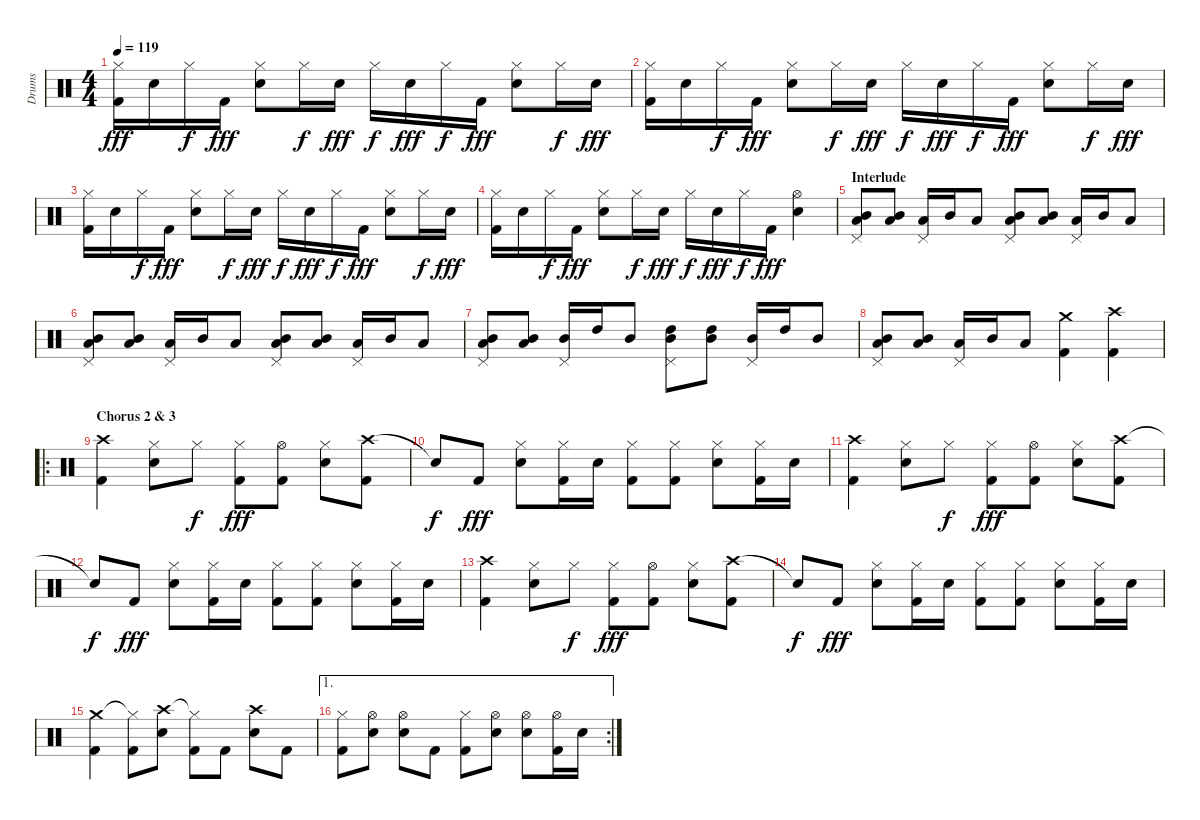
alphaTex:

\track ("Drums" "Drums") {instrument percussion}
\staff {score}
\articulation defaults
\ts (4 4)
\tempo 119
\clef neutral
\ks c
("Hi-Hat (closed)" "Kick (hit) 2").16{dy fff} "Electric Snare (hit)".16 "Hi-Hat (closed)".16{dy f} "Kick (hit) 2".16{dy fff} ("Hi-Hat (closed)" "Electric Snare (hit)").8 "Hi-Hat (closed)".16{dy f} "Electric Snare (hit)".16{dy fff} "Hi-Hat (closed)".16{dy f} "Electric Snare (hit)".16{dy fff} "Hi-Hat (closed)".16{dy f} "Kick (hit) 2".16{dy fff} ("Hi-Hat (closed)" "Electric Snare (hit)").8 "Hi-Hat (closed)".16{dy f} "Electric Snare (hit)".16{dy fff} |
("Hi-Hat (closed)" "Kick (hit) 2").16 "Electric Snare (hit)".16 "Hi-Hat (closed)".16{dy f} "Kick (hit) 2".16{dy fff} ("Hi-Hat (closed)" "Electric Snare (hit)").8 "Hi-Hat (closed)".16{dy f} "Electric Snare (hit)".16{dy fff} "Hi-Hat (closed)".16{dy f} "Electric Snare (hit)".16{dy fff} "Hi-Hat (closed)".16{dy f} "Kick (hit) 2".16{dy fff} ("Hi-Hat (closed)" "Electric Snare (hit)").8 "Hi-Hat (closed)".16{dy f} "Electric Snare (hit)".16{dy fff} |
("Hi-Hat (closed)" "Kick (hit) 2").16 "Electric Snare (hit)".16 "Hi-Hat (closed)".16{dy f} "Kick (hit) 2".16{dy fff} ("Hi-Hat (closed)" "Electric Snare (hit)").8 "Hi-Hat (closed)".16{dy f} "Electric Snare (hit)".16{dy fff} "Hi-Hat (closed)".16{dy f} "Electric Snare (hit)".16{dy fff} "Hi-Hat (closed)".16{dy f} "Kick (hit) 2".16{dy fff} ("Hi-Hat (closed)" "Electric Snare (hit)").8 "Hi-Hat (closed)".16{dy f} "Electric Snare (hit)".16{dy fff} |
("Hi-Hat (closed)" "Kick (hit) 2").16 "Electric Snare (hit)".16 "Hi-Hat (closed)".16{dy f} "Kick (hit) 2".16{dy fff} ("Hi-Hat (closed)" "Electric Snare (hit)").8 "Hi-Hat (closed)".16{dy f} "Electric Snare (hit)".16{dy fff} "Hi-Hat (closed)".16{dy f} "Electric Snare (hit)".16{dy fff} "Hi-Hat (closed)".16{dy f} "Kick (hit) 2".16{dy fff} ("Hi-Hat (open)" "Electric Snare (hit)").4 |
\section ("" "Interlude")
("Mid Tom (hit)" "Low Tom (hit)" "Pedal Hi-Hat (hit)").8 ("Mid Tom (hit)" "Low Tom (hit)").8 ("Low Tom (hit)" "Pedal Hi-Hat (hit)").16 "Mid Tom (hit)".16 "Low Tom (hit)".8 ("Mid Tom (hit)" "Low Tom (hit)" "Pedal Hi-Hat (hit)").8 ("Mid Tom (hit)" "Low Tom (hit)").8 ("Low Tom (hit)" "Pedal Hi-Hat (hit)").16 "Mid Tom (hit)".16 "Low Tom (hit)".8 |
("Mid Tom (hit)" "Low Tom (hit)" "Pedal Hi-Hat (hit)").8 ("Mid Tom (hit)" "Low Tom (hit)").8 ("Low Tom (hit)" "Pedal Hi-Hat (hit)").16 "Mid Tom (hit)".16 "Low Tom (hit)".8 ("Mid Tom (hit)" "Low Tom (hit)" "Pedal Hi-Hat (hit)").8 ("Mid Tom (hit)" "Low Tom (hit)").8 ("Low Tom (hit)" "Pedal Hi-Hat (hit)").16 "Mid Tom (hit)".16 "Low Tom (hit)".8 |
("Mid Tom (hit)" "Low Tom (hit)" "Pedal Hi-Hat (hit)").8 ("Mid Tom (hit)" "Low Tom (hit)").8 ("Mid Tom (hit)" "Pedal Hi-Hat (hit)").16 "High Tom (hit)".16 "Mid Tom (hit)".8 ("High Tom (hit)" "Mid Tom (hit)" "Pedal Hi-Hat (hit)").8 ("High Tom (hit)" "Mid Tom (hit)").8 ("Mid Tom (hit)" "Pedal Hi-Hat (hit)").16 "High Tom (hit)".16 "Mid Tom (hit)".8 |
("Mid Tom (hit)" "Low Tom (hit)" "Pedal Hi-Hat (hit)").8 ("Mid Tom (hit)" "Low Tom (hit)").8 ("Low Tom (hit)" "Pedal Hi-Hat (hit)").16 "Mid Tom (hit)".16 "Low Tom (hit)".8 ("Crash medium (hit)" "Kick (hit) 2").4 ("Crash high (hit)" "Kick (hit) 2").4 |
\ro
\section ("" "Chorus 2 & 3")
("Crash high (hit)" "Kick (hit) 2").4 ("Hi-Hat (closed)" "Electric Snare (hit)").8 "Hi-Hat (closed)".8{dy f} ("Hi-Hat (closed)" "Kick (hit) 2").8{dy fff} ("Hi-Hat (open)" "Kick (hit) 2").8 ("Hi-Hat (closed)" "Electric Snare (hit)").8 ("Crash high (hit)" "Kick (hit) 2").8 |
"Snare (hit)"{t}.8{dy f} "Kick (hit) 2".8{dy fff} ("Hi-Hat (closed)" "Electric Snare (hit)").8 ("Hi-Hat (closed)" "Kick (hit) 2").16 "Electric Snare (hit)".16 ("Hi-Hat (closed)" "Kick (hit) 2").8 ("Hi-Hat (closed)" "Kick (hit) 2").8 ("Hi-Hat (closed)" "Electric Snare (hit)").8 ("Hi-Hat (closed)" "Kick (hit) 2").16 "Electric Snare (hit)".16 |
("Crash high (hit)" "Kick (hit) 2").4 ("Hi-Hat (closed)" "Electric Snare (hit)").8 "Hi-Hat (closed)".8{dy f} ("Hi-Hat (closed)" "Kick (hit) 2").8{dy fff} ("Hi-Hat (open)" "Kick (hit) 2").8 ("Hi-Hat (closed)" "Electric Snare (hit)").8 ("Crash high (hit)" "Kick (hit) 2").8 |
"Snare (hit)"{t}.8{dy f} "Kick (hit) 2".8{dy fff} ("Hi-Hat (closed)" "Electric Snare (hit)").8 ("Hi-Hat (closed)" "Kick (hit) 2").16 "Electric Snare (hit)".16 ("Hi-Hat (closed)" "Kick (hit) 2").8 ("Hi-Hat (closed)" "Kick (hit) 2").8 ("Hi-Hat (closed)" "Electric Snare (hit)").8 ("Hi-Hat (closed)" "Kick (hit) 2").16 "Electric Snare (hit)".16 |
("Crash high (hit)" "Kick (hit) 2").4 ("Hi-Hat (closed)" "Electric Snare (hit)").8 "Hi-Hat (closed)".8{dy f} ("Hi-Hat (closed)" "Kick (hit) 2").8{dy fff} ("Hi-Hat (open)" "Kick (hit) 2").8 ("Hi-Hat (closed)" "Electric Snare (hit)").8 ("Crash high (hit)" "Kick (hit) 2").8 |
"Snare (hit)"{t}.8{dy f} "Kick (hit) 2".8{dy fff} ("Hi-Hat (closed)" "Electric Snare (hit)").8 ("Hi-Hat (closed)" "Kick (hit) 2").16 "Electric Snare (hit)".16 ("Hi-Hat (closed)" "Kick (hit) 2").8 ("Hi-Hat (closed)" "Kick (hit) 2").8 ("Hi-Hat (closed)" "Electric Snare (hit)").8 ("Hi-Hat (closed)" "Kick (hit) 2").16 "Electric Snare (hit)".16 |
("Crash medium (hit)" "Kick (hit) 2").4 ("Hi-Hat (closed)"{t} "Kick (hit) 2").8 ("Crash high (hit)" "Electric Snare (hit)").8 ("Hi-Hat (closed)"{t} "Kick (hit) 2").8 "Kick (hit) 2".8 ("Crash high (hit)" "Electric Snare (hit)").8 "Kick (hit) 2".8 |
\ae 1
\rc 2
("Hi-Hat (closed)" "Kick (hit) 2").8 ("Hi-Hat (open)" "Electric Snare (hit)").8 ("Hi-Hat (open)" "Electric Snare (hit)").8 "Kick (hit) 2".8 ("Hi-Hat (closed)" "Kick (hit) 2").8 ("Hi-Hat (open)" "Electric Snare (hit)").8 ("Hi-Hat (open)" "Electric Snare (hit)").8 ("Hi-Hat (open)" "Kick (hit) 2").16 "Electric Snare (hit)".16
